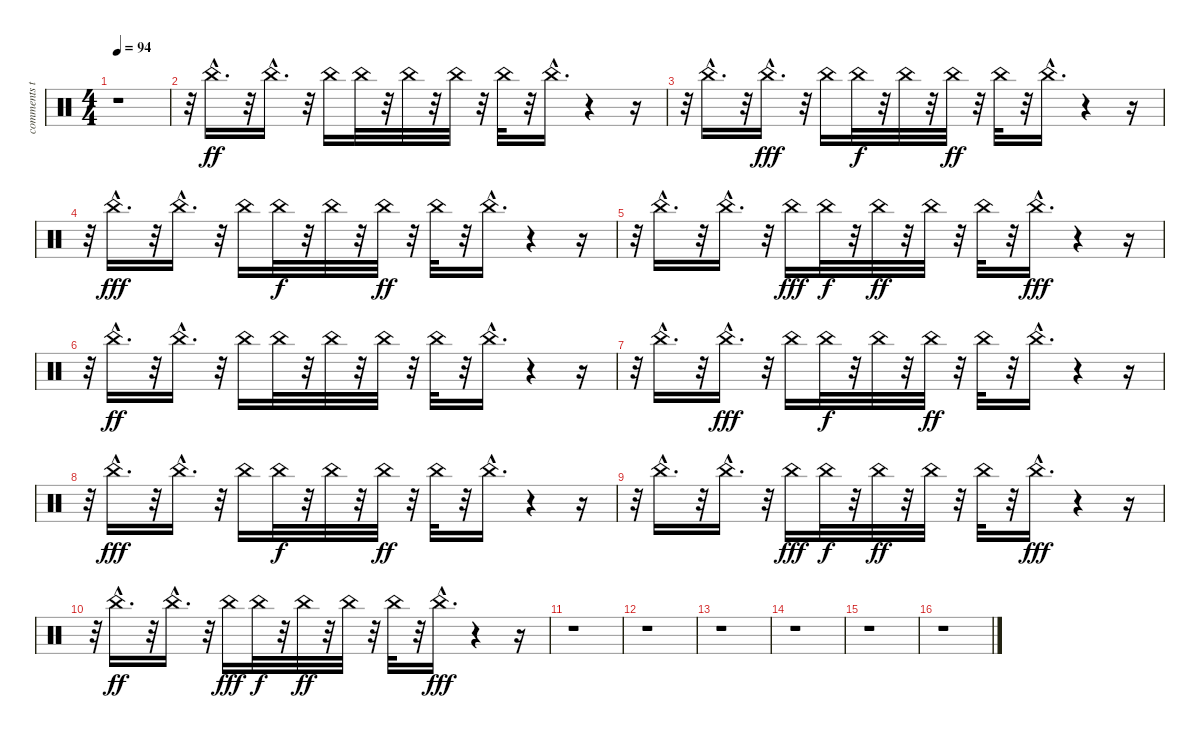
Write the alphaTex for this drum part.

\track ("comments to:" "comments t") {instrument percussion}
\staff {score}
\articulation defaults
\ts (4 4)
\tempo 94
\clef neutral
\ks c
r.1{dy ff} |
r.32 "China (choke)"{hac}.16{d} r.32 "China (choke)"{hac}.16{d} r.32 "China (choke)".16 "China (choke)".32 r.32 "China (choke)".32 r.32 "China (choke)".32 r.32 "China (choke)".32 r.32 "China (choke)"{hac}.16{d} r.4 r.16 |
r.32 "China (choke)"{hac}.16{d} r.32 "China (choke)"{hac}.16{d dy fff} r.32 "China (choke)".16 "China (choke)".32{dy f} r.32 "China (choke)".32 r.32 "China (choke)".32{dy ff} r.32 "China (choke)".32 r.32 "China (choke)"{hac}.16{d} r.4 r.16 |
r.32 "China (choke)"{hac}.16{d dy fff volume 6} r.32 "China (choke)"{hac}.16{d} r.32 "China (choke)".16 "China (choke)".32{dy f} r.32 "China (choke)".32 r.32 "China (choke)".32{dy ff} r.32 "China (choke)".32 r.32 "China (choke)"{hac}.16{d} r.4 r.16 |
r.32 "China (choke)"{hac}.16{d} r.32 "China (choke)"{hac}.16{d} r.32 "China (choke)".16{dy fff} "China (choke)".32{dy f} r.32 "China (choke)".32{dy ff} r.32 "China (choke)".32 r.32 "China (choke)".32 r.32 "China (choke)"{hac}.16{d dy fff} r.4 r.16 |
r.32 "China (choke)"{hac}.16{d dy ff} r.32 "China (choke)"{hac}.16{d} r.32 "China (choke)".16{volume 6} "China (choke)".32 r.32 "China (choke)".32 r.32 "China (choke)".32 r.32 "China (choke)".32 r.32 "China (choke)"{hac}.16{d volume 6} r.4 r.16 |
r.32 "China (choke)"{hac}.16{d} r.32 "China (choke)"{hac}.16{d dy fff} r.32 "China (choke)".16{volume 5} "China (choke)".32{dy f volume 5} r.32 "China (choke)".32 r.32 "China (choke)".32{dy ff} r.32 "China (choke)".32 r.32 "China (choke)"{hac}.16{d} r.4 r.16 |
r.32 "China (choke)"{hac}.16{d dy fff} r.32 "China (choke)"{hac}.16{d volume 5} r.32 "China (choke)".16 "China (choke)".32{dy f volume 5} r.32 "China (choke)".32{volume 5} r.32 "China (choke)".32{dy ff} r.32 "China (choke)".32 r.32 "China (choke)"{hac}.16{d volume 5} r.4 r.16 |
r.32 "China (choke)"{hac}.16{d volume 4} r.32 "China (choke)"{hac}.16{d volume 4} r.32 "China (choke)".16{dy fff volume 4} "China (choke)".32{dy f} r.32 "China (choke)".32{dy ff volume 4} r.32 "China (choke)".32 r.32 "China (choke)".32{volume 4} r.32 "China (choke)"{hac}.16{d dy fff} r.4 r.16 |
r.32 "China (choke)"{hac}.16{d dy ff volume 4} r.32 "China (choke)"{hac}.16{d volume 3} r.32 "China (choke)".16{dy fff volume 3} "China (choke)".32{dy f} r.32 "China (choke)".32{dy ff} r.32 "China (choke)".32{volume 3} r.32 "China (choke)".32{volume 3} r.32 "China (choke)"{hac}.16{d dy fff} r.4 r.16 |
r.1 |
r.1 |
r.1 |
r.1 |
r.1 |
r.1
